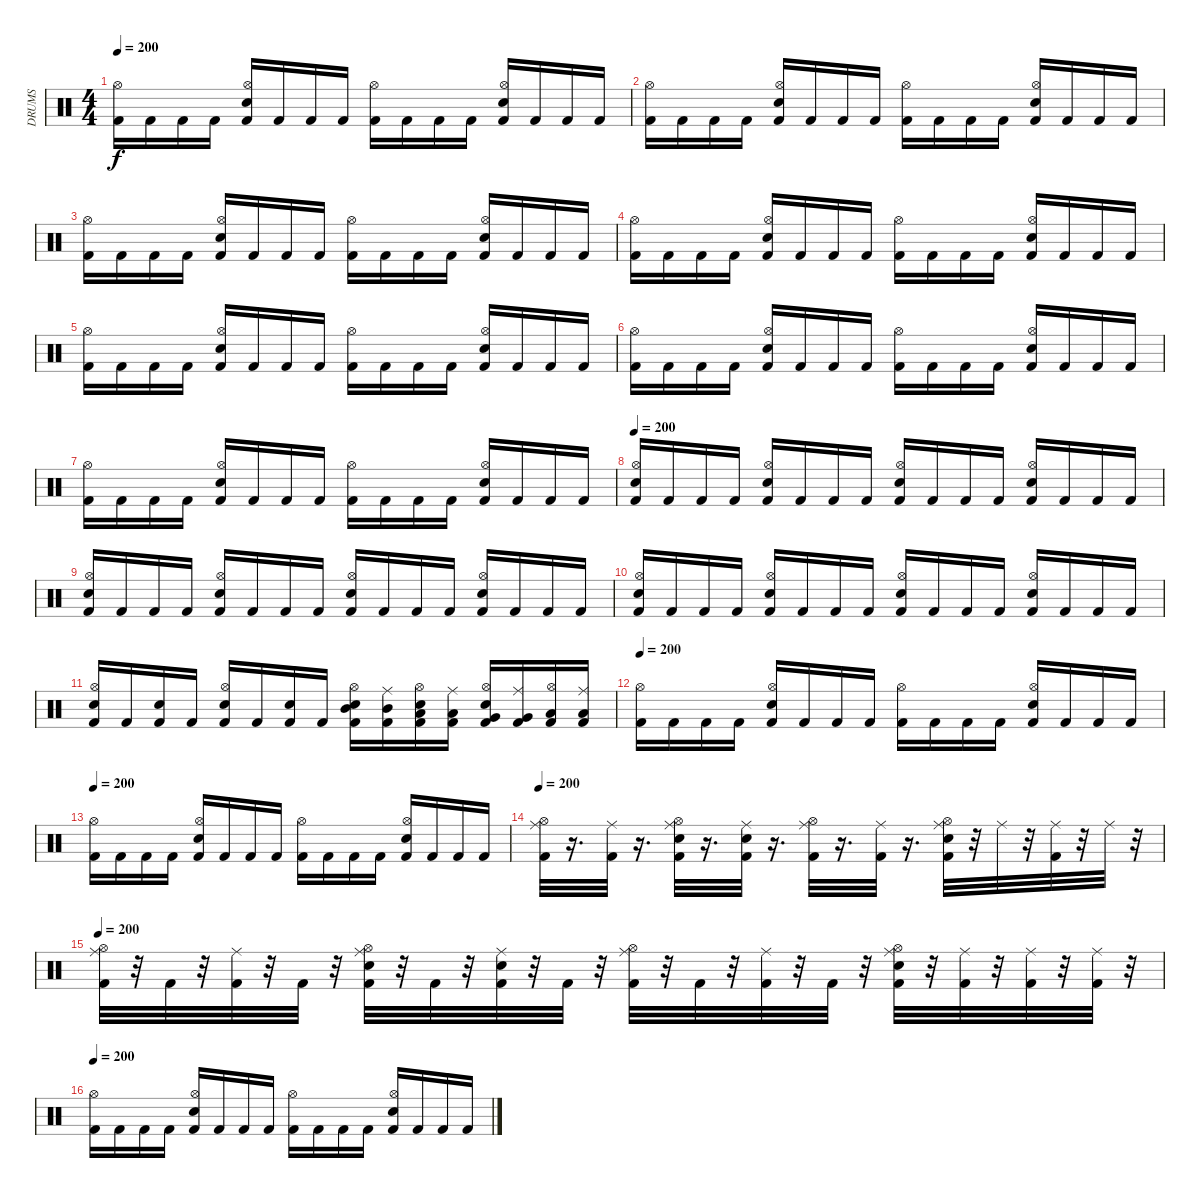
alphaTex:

\track ("DRUMS" "DRUMS") {instrument percussion}
\staff {score}
\articulation defaults
\ts (4 4)
\tempo 200
\clef neutral
\ks c
("Kick (hit) 2" "Hi-Hat (open)").16{dy f} "Kick (hit) 2".16 "Kick (hit) 2".16 "Kick (hit) 2".16 ("Kick (hit) 2" "Snare (hit) 2" "Hi-Hat (open)").16 "Kick (hit) 2".16 "Kick (hit) 2".16 "Kick (hit) 2".16 ("Kick (hit) 2" "Hi-Hat (open)").16 "Kick (hit) 2".16 "Kick (hit) 2".16 "Kick (hit) 2".16 ("Kick (hit) 2" "Snare (hit) 2" "Hi-Hat (open)").16 "Kick (hit) 2".16 "Kick (hit) 2".16 "Kick (hit) 2".16 |
("Kick (hit) 2" "Hi-Hat (open)").16 "Kick (hit) 2".16 "Kick (hit) 2".16 "Kick (hit) 2".16 ("Kick (hit) 2" "Snare (hit) 2" "Hi-Hat (open)").16 "Kick (hit) 2".16 "Kick (hit) 2".16 "Kick (hit) 2".16 ("Kick (hit) 2" "Hi-Hat (open)").16 "Kick (hit) 2".16 "Kick (hit) 2".16 "Kick (hit) 2".16 ("Kick (hit) 2" "Snare (hit) 2" "Hi-Hat (open)").16 "Kick (hit) 2".16 "Kick (hit) 2".16 "Kick (hit) 2".16 |
("Kick (hit) 2" "Hi-Hat (open)").16 "Kick (hit) 2".16 "Kick (hit) 2".16 "Kick (hit) 2".16 ("Kick (hit) 2" "Snare (hit) 2" "Hi-Hat (open)").16 "Kick (hit) 2".16 "Kick (hit) 2".16 "Kick (hit) 2".16 ("Kick (hit) 2" "Hi-Hat (open)").16 "Kick (hit) 2".16 "Kick (hit) 2".16 "Kick (hit) 2".16 ("Kick (hit) 2" "Snare (hit) 2" "Hi-Hat (open)").16 "Kick (hit) 2".16 "Kick (hit) 2".16 "Kick (hit) 2".16 |
("Kick (hit) 2" "Hi-Hat (open)").16 "Kick (hit) 2".16 "Kick (hit) 2".16 "Kick (hit) 2".16 ("Kick (hit) 2" "Snare (hit) 2" "Hi-Hat (open)").16 "Kick (hit) 2".16 "Kick (hit) 2".16 "Kick (hit) 2".16 ("Kick (hit) 2" "Hi-Hat (open)").16 "Kick (hit) 2".16 "Kick (hit) 2".16 "Kick (hit) 2".16 ("Kick (hit) 2" "Snare (hit) 2" "Hi-Hat (open)").16 "Kick (hit) 2".16 "Kick (hit) 2".16 "Kick (hit) 2".16 |
("Kick (hit) 2" "Hi-Hat (open)").16 "Kick (hit) 2".16 "Kick (hit) 2".16 "Kick (hit) 2".16 ("Kick (hit) 2" "Snare (hit) 2" "Hi-Hat (open)").16 "Kick (hit) 2".16 "Kick (hit) 2".16 "Kick (hit) 2".16 ("Kick (hit) 2" "Hi-Hat (open)").16 "Kick (hit) 2".16 "Kick (hit) 2".16 "Kick (hit) 2".16 ("Kick (hit) 2" "Snare (hit) 2" "Hi-Hat (open)").16 "Kick (hit) 2".16 "Kick (hit) 2".16 "Kick (hit) 2".16 |
("Kick (hit) 2" "Hi-Hat (open)").16 "Kick (hit) 2".16 "Kick (hit) 2".16 "Kick (hit) 2".16 ("Kick (hit) 2" "Snare (hit) 2" "Hi-Hat (open)").16 "Kick (hit) 2".16 "Kick (hit) 2".16 "Kick (hit) 2".16 ("Kick (hit) 2" "Hi-Hat (open)").16 "Kick (hit) 2".16 "Kick (hit) 2".16 "Kick (hit) 2".16 ("Kick (hit) 2" "Snare (hit) 2" "Hi-Hat (open)").16 "Kick (hit) 2".16 "Kick (hit) 2".16 "Kick (hit) 2".16 |
("Kick (hit) 2" "Hi-Hat (open)").16 "Kick (hit) 2".16 "Kick (hit) 2".16 "Kick (hit) 2".16 ("Kick (hit) 2" "Snare (hit) 2" "Hi-Hat (open)").16 "Kick (hit) 2".16 "Kick (hit) 2".16 "Kick (hit) 2".16 ("Kick (hit) 2" "Hi-Hat (open)").16 "Kick (hit) 2".16 "Kick (hit) 2".16 "Kick (hit) 2".16 ("Kick (hit) 2" "Snare (hit) 2" "Hi-Hat (open)").16 "Kick (hit) 2".16 "Kick (hit) 2".16 "Kick (hit) 2".16 |
\tempo 200
("Kick (hit) 2" "Snare (hit) 2" "Hi-Hat (open)").16 "Kick (hit) 2".16 "Kick (hit) 2".16 "Kick (hit) 2".16 ("Kick (hit) 2" "Snare (hit) 2" "Hi-Hat (open)").16 "Kick (hit) 2".16 "Kick (hit) 2".16 "Kick (hit) 2".16 ("Kick (hit) 2" "Snare (hit) 2" "Hi-Hat (open)").16 "Kick (hit) 2".16 "Kick (hit) 2".16 "Kick (hit) 2".16 ("Kick (hit) 2" "Snare (hit) 2" "Hi-Hat (open)").16 "Kick (hit) 2".16 "Kick (hit) 2".16 "Kick (hit) 2".16 |
("Kick (hit) 2" "Snare (hit) 2" "Hi-Hat (open)").16 "Kick (hit) 2".16 "Kick (hit) 2".16 "Kick (hit) 2".16 ("Kick (hit) 2" "Snare (hit) 2" "Hi-Hat (open)").16 "Kick (hit) 2".16 "Kick (hit) 2".16 "Kick (hit) 2".16 ("Kick (hit) 2" "Snare (hit) 2" "Hi-Hat (open)").16 "Kick (hit) 2".16 "Kick (hit) 2".16 "Kick (hit) 2".16 ("Kick (hit) 2" "Snare (hit) 2" "Hi-Hat (open)").16 "Kick (hit) 2".16 "Kick (hit) 2".16 "Kick (hit) 2".16 |
("Kick (hit) 2" "Snare (hit) 2" "Hi-Hat (open)").16 "Kick (hit) 2".16 "Kick (hit) 2".16 "Kick (hit) 2".16 ("Kick (hit) 2" "Snare (hit) 2" "Hi-Hat (open)").16 "Kick (hit) 2".16 "Kick (hit) 2".16 "Kick (hit) 2".16 ("Kick (hit) 2" "Snare (hit) 2" "Hi-Hat (open)").16 "Kick (hit) 2".16 "Kick (hit) 2".16 "Kick (hit) 2".16 ("Kick (hit) 2" "Snare (hit) 2" "Hi-Hat (open)").16 "Kick (hit) 2".16 "Kick (hit) 2".16 "Kick (hit) 2".16 |
("Kick (hit) 2" "Snare (hit) 2" "Hi-Hat (open)").16 "Kick (hit) 2".16 ("Kick (hit) 2" "Snare (hit) 2").16 "Kick (hit) 2".16 ("Kick (hit) 2" "Snare (hit) 2" "Hi-Hat (open)").16 "Kick (hit) 2".16 ("Kick (hit) 2" "Snare (hit) 2").16 "Kick (hit) 2".16 ("Kick (hit) 2" "Snare (hit) 2" "Hi-Hat (open)" "Mid Tom (hit)").16 ("Kick (hit) 2" "Ride (middle)" "Mid Tom (hit)").16 ("Kick (hit) 2" "Snare (hit) 2" "Hi-Hat (open)" "Low Tom (hit)").16 ("Kick (hit) 2" "Ride (middle)" "Low Tom (hit)").16 ("Kick (hit) 2" "Snare (hit) 2" "Hi-Hat (open)" "Very Low Tom (hit)").16 ("Kick (hit) 2" "Ride (middle)" "Very Low Tom (hit)").16 ("Kick (hit) 2" "Hi-Hat (open)" "Low Floor Tom (hit)").16 ("Kick (hit) 2" "Ride (middle)" "Low Floor Tom (hit)").16 |
\tempo 200
("Kick (hit) 2" "Hi-Hat (open)").16 "Kick (hit) 2".16 "Kick (hit) 2".16 "Kick (hit) 2".16 ("Kick (hit) 2" "Snare (hit) 2" "Hi-Hat (open)").16 "Kick (hit) 2".16 "Kick (hit) 2".16 "Kick (hit) 2".16 ("Kick (hit) 2" "Hi-Hat (open)").16 "Kick (hit) 2".16 "Kick (hit) 2".16 "Kick (hit) 2".16 ("Kick (hit) 2" "Snare (hit) 2" "Hi-Hat (open)").16 "Kick (hit) 2".16 "Kick (hit) 2".16 "Kick (hit) 2".16 |
\tempo 200
("Kick (hit) 2" "Hi-Hat (open)").16 "Kick (hit) 2".16 "Kick (hit) 2".16 "Kick (hit) 2".16 ("Kick (hit) 2" "Snare (hit) 2" "Hi-Hat (open)").16 "Kick (hit) 2".16 "Kick (hit) 2".16 "Kick (hit) 2".16 ("Kick (hit) 2" "Hi-Hat (open)").16 "Kick (hit) 2".16 "Kick (hit) 2".16 "Kick (hit) 2".16 ("Kick (hit) 2" "Snare (hit) 2" "Hi-Hat (open)").16 "Kick (hit) 2".16 "Kick (hit) 2".16 "Kick (hit) 2".16 |
\tempo 200
("Hi-Hat (open)" "Kick (hit) 2" "Ride (middle)").32 r.16{d} ("Ride (middle)" "Kick (hit) 2").32 r.16{d} ("Hi-Hat (open)" "Kick (hit) 2" "Ride (middle)" "Snare (hit) 2").32 r.16{d} ("Snare (hit) 2" "Ride (middle)" "Kick (hit) 2").32 r.16{d} ("Hi-Hat (open)" "Kick (hit) 2" "Ride (middle)").32 r.16{d} ("Ride (middle)" "Kick (hit) 2").32 r.16{d} ("Snare (hit) 2" "Kick (hit) 2" "Hi-Hat (open)" "Ride (middle)").32 r.32 "Ride (middle)".32 r.32 ("Kick (hit) 2" "Ride (middle)").32 r.32 "Ride (middle)".32 r.32 |
\tempo 200
("Ride (middle)" "Hi-Hat (open)" "Kick (hit) 2").32 r.32 "Kick (hit) 2".32 r.32 ("Ride (middle)" "Kick (hit) 2").32 r.32 "Kick (hit) 2".32 r.32 ("Ride (middle)" "Kick (hit) 2" "Hi-Hat (open)" "Snare (hit) 2").32 r.32 "Kick (hit) 2".32 r.32 ("Kick (hit) 2" "Ride (middle)" "Snare (hit) 2").32 r.32 "Kick (hit) 2".32 r.32 ("Ride (middle)" "Hi-Hat (open)" "Kick (hit) 2").32 r.32 "Kick (hit) 2".32 r.32 ("Ride (middle)" "Kick (hit) 2").32 r.32 "Kick (hit) 2".32 r.32 ("Snare (hit) 2" "Hi-Hat (open)" "Ride (middle)" "Kick (hit) 2").32 r.32 ("Ride (middle)" "Kick (hit) 2").32 r.32 ("Ride (middle)" "Kick (hit) 2").32 r.32 ("Ride (middle)" "Kick (hit) 2").32 r.32 |
\tempo 200
("Kick (hit) 2" "Hi-Hat (open)").16 "Kick (hit) 2".16 "Kick (hit) 2".16 "Kick (hit) 2".16 ("Kick (hit) 2" "Snare (hit) 2" "Hi-Hat (open)").16 "Kick (hit) 2".16 "Kick (hit) 2".16 "Kick (hit) 2".16 ("Kick (hit) 2" "Hi-Hat (open)").16 "Kick (hit) 2".16 "Kick (hit) 2".16 "Kick (hit) 2".16 ("Kick (hit) 2" "Snare (hit) 2" "Hi-Hat (open)").16 "Kick (hit) 2".16 "Kick (hit) 2".16 "Kick (hit) 2".16
